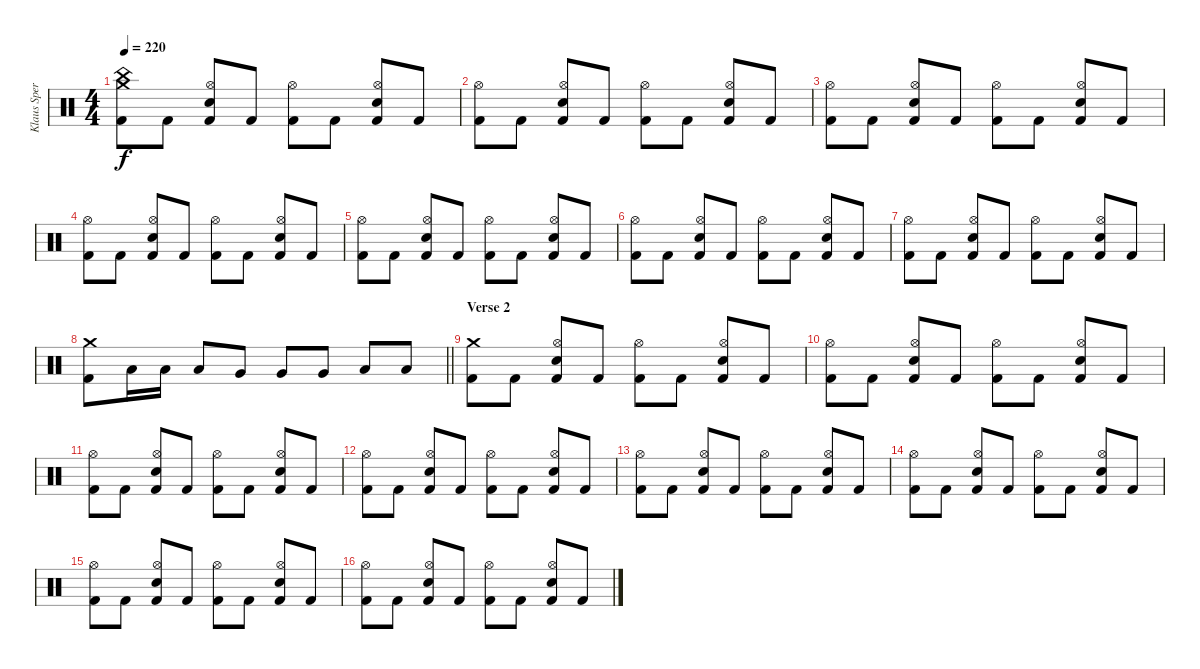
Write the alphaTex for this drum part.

\track ("Klaus Sperling" "Klaus Sper") {instrument percussion}
\staff {score}
\articulation defaults
\ts (4 4)
\tempo 220
\clef neutral
\ks c
("China (hit)" "Crash medium (hit)" "Kick (hit) 2").8{dy f} "Kick (hit) 2".8 ("Hi-Hat (open)" "Electric Snare (hit)" "Kick (hit) 2").8 "Kick (hit) 2".8 ("Hi-Hat (open)" "Kick (hit) 2").8 "Kick (hit) 2".8 ("Hi-Hat (open)" "Electric Snare (hit)" "Kick (hit) 2").8 "Kick (hit) 2".8 |
("Hi-Hat (open)" "Kick (hit) 2").8 "Kick (hit) 2".8 ("Hi-Hat (open)" "Electric Snare (hit)" "Kick (hit) 2").8 "Kick (hit) 2".8 ("Hi-Hat (open)" "Kick (hit) 2").8 "Kick (hit) 2".8 ("Hi-Hat (open)" "Electric Snare (hit)" "Kick (hit) 2").8 "Kick (hit) 2".8 |
("Hi-Hat (open)" "Kick (hit) 2").8 "Kick (hit) 2".8 ("Hi-Hat (open)" "Electric Snare (hit)" "Kick (hit) 2").8 "Kick (hit) 2".8 ("Hi-Hat (open)" "Kick (hit) 2").8 "Kick (hit) 2".8 ("Hi-Hat (open)" "Electric Snare (hit)" "Kick (hit) 2").8 "Kick (hit) 2".8 |
("Hi-Hat (open)" "Kick (hit) 2").8 "Kick (hit) 2".8 ("Hi-Hat (open)" "Electric Snare (hit)" "Kick (hit) 2").8 "Kick (hit) 2".8 ("Hi-Hat (open)" "Kick (hit) 2").8 "Kick (hit) 2".8 ("Hi-Hat (open)" "Electric Snare (hit)" "Kick (hit) 2").8 "Kick (hit) 2".8 |
("Hi-Hat (open)" "Kick (hit) 2").8 "Kick (hit) 2".8 ("Hi-Hat (open)" "Electric Snare (hit)" "Kick (hit) 2").8 "Kick (hit) 2".8 ("Hi-Hat (open)" "Kick (hit) 2").8 "Kick (hit) 2".8 ("Hi-Hat (open)" "Electric Snare (hit)" "Kick (hit) 2").8 "Kick (hit) 2".8 |
("Hi-Hat (open)" "Kick (hit) 2").8 "Kick (hit) 2".8 ("Hi-Hat (open)" "Electric Snare (hit)" "Kick (hit) 2").8 "Kick (hit) 2".8 ("Hi-Hat (open)" "Kick (hit) 2").8 "Kick (hit) 2".8 ("Hi-Hat (open)" "Electric Snare (hit)" "Kick (hit) 2").8 "Kick (hit) 2".8 |
("Hi-Hat (open)" "Kick (hit) 2").8 "Kick (hit) 2".8 ("Hi-Hat (open)" "Electric Snare (hit)" "Kick (hit) 2").8 "Kick (hit) 2".8 ("Hi-Hat (open)" "Kick (hit) 2").8 "Kick (hit) 2".8 ("Hi-Hat (open)" "Electric Snare (hit)" "Kick (hit) 2").8 "Kick (hit) 2".8 |
\barLineRight lightlight
("Crash medium (hit)" "Kick (hit) 2").8 "Low Tom (hit)".16 "Low Tom (hit)".16 "Low Tom (hit)".8 "Very Low Tom (hit)".8 "Very Low Tom (hit)".8 "Very Low Tom (hit)".8 "Low Floor Tom (hit)".8 "Low Floor Tom (hit)".8 |
\section ("" "Verse 2")
("Crash medium (hit)" "Kick (hit) 2").8 "Kick (hit) 2".8 ("Hi-Hat (open)" "Electric Snare (hit)" "Kick (hit) 2").8 "Kick (hit) 2".8 ("Hi-Hat (open)" "Kick (hit) 2").8 "Kick (hit) 2".8 ("Hi-Hat (open)" "Electric Snare (hit)" "Kick (hit) 2").8 "Kick (hit) 2".8 |
("Hi-Hat (open)" "Kick (hit) 2").8 "Kick (hit) 2".8 ("Hi-Hat (open)" "Electric Snare (hit)" "Kick (hit) 2").8 "Kick (hit) 2".8 ("Hi-Hat (open)" "Kick (hit) 2").8 "Kick (hit) 2".8 ("Hi-Hat (open)" "Electric Snare (hit)" "Kick (hit) 2").8 "Kick (hit) 2".8 |
("Hi-Hat (open)" "Kick (hit) 2").8 "Kick (hit) 2".8 ("Hi-Hat (open)" "Electric Snare (hit)" "Kick (hit) 2").8 "Kick (hit) 2".8 ("Hi-Hat (open)" "Kick (hit) 2").8 "Kick (hit) 2".8 ("Hi-Hat (open)" "Electric Snare (hit)" "Kick (hit) 2").8 "Kick (hit) 2".8 |
("Hi-Hat (open)" "Kick (hit) 2").8 "Kick (hit) 2".8 ("Hi-Hat (open)" "Electric Snare (hit)" "Kick (hit) 2").8 "Kick (hit) 2".8 ("Hi-Hat (open)" "Kick (hit) 2").8 "Kick (hit) 2".8 ("Hi-Hat (open)" "Electric Snare (hit)" "Kick (hit) 2").8 "Kick (hit) 2".8 |
("Hi-Hat (open)" "Kick (hit) 2").8 "Kick (hit) 2".8 ("Hi-Hat (open)" "Electric Snare (hit)" "Kick (hit) 2").8 "Kick (hit) 2".8 ("Hi-Hat (open)" "Kick (hit) 2").8 "Kick (hit) 2".8 ("Hi-Hat (open)" "Electric Snare (hit)" "Kick (hit) 2").8 "Kick (hit) 2".8 |
("Hi-Hat (open)" "Kick (hit) 2").8 "Kick (hit) 2".8 ("Hi-Hat (open)" "Electric Snare (hit)" "Kick (hit) 2").8 "Kick (hit) 2".8 ("Hi-Hat (open)" "Kick (hit) 2").8 "Kick (hit) 2".8 ("Hi-Hat (open)" "Electric Snare (hit)" "Kick (hit) 2").8 "Kick (hit) 2".8 |
("Hi-Hat (open)" "Kick (hit) 2").8 "Kick (hit) 2".8 ("Hi-Hat (open)" "Electric Snare (hit)" "Kick (hit) 2").8 "Kick (hit) 2".8 ("Hi-Hat (open)" "Kick (hit) 2").8 "Kick (hit) 2".8 ("Hi-Hat (open)" "Electric Snare (hit)" "Kick (hit) 2").8 "Kick (hit) 2".8 |
("Hi-Hat (open)" "Kick (hit) 2").8 "Kick (hit) 2".8 ("Hi-Hat (open)" "Electric Snare (hit)" "Kick (hit) 2").8 "Kick (hit) 2".8 ("Hi-Hat (open)" "Kick (hit) 2").8 "Kick (hit) 2".8 ("Hi-Hat (open)" "Electric Snare (hit)" "Kick (hit) 2").8 "Kick (hit) 2".8
